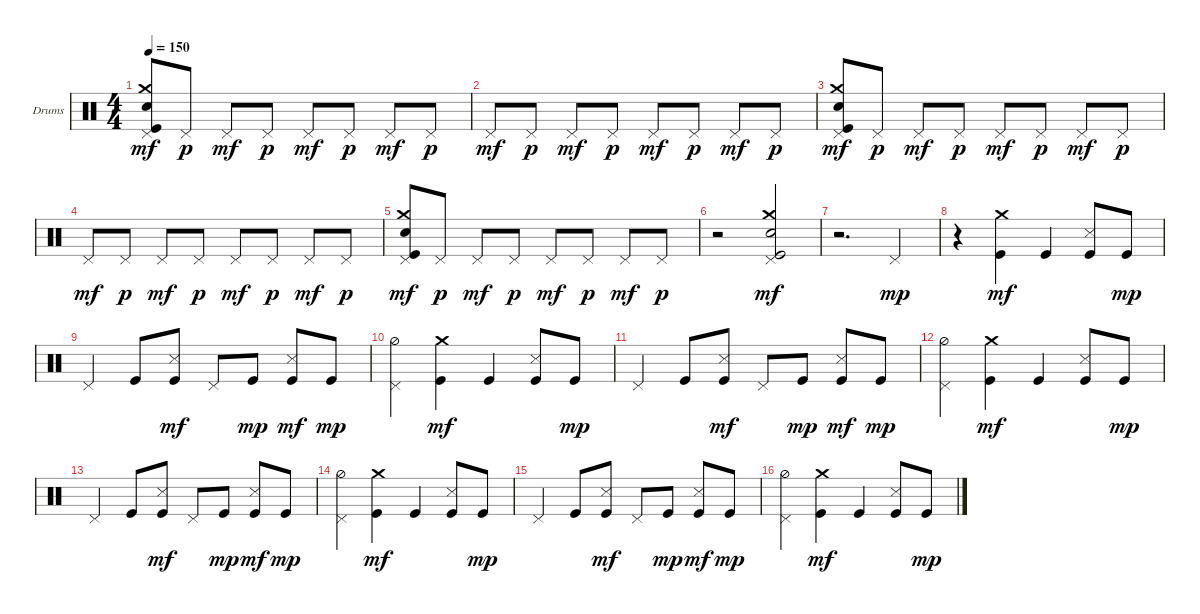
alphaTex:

\defaultSystemsLayout 4
\bracketExtendMode groupsimilarinstruments
\firstSystemTrackNameOrientation horizontal
\otherSystemsTrackNameOrientation horizontal
\track ("Е. Кулаков" "Drums") {instrument percussion}
\staff {score}
\articulation defaults
\ts (4 4)
\tempo 150
\clef neutral
\ks c
("Pedal Hi-Hat (hit)" "Crash medium (hit)" "Snare (hit) 2" "Kick (hit)").8{dy mf} "Pedal Hi-Hat (hit)".8{dy p} "Pedal Hi-Hat (hit)".8{dy mf} "Pedal Hi-Hat (hit)".8{dy p} "Pedal Hi-Hat (hit)".8{dy mf} "Pedal Hi-Hat (hit)".8{dy p} "Pedal Hi-Hat (hit)".8{dy mf} "Pedal Hi-Hat (hit)".8{dy p} |
"Pedal Hi-Hat (hit)".8{dy mf} "Pedal Hi-Hat (hit)".8{dy p} "Pedal Hi-Hat (hit)".8{dy mf} "Pedal Hi-Hat (hit)".8{dy p} "Pedal Hi-Hat (hit)".8{dy mf} "Pedal Hi-Hat (hit)".8{dy p} "Pedal Hi-Hat (hit)".8{dy mf} "Pedal Hi-Hat (hit)".8{dy p} |
("Pedal Hi-Hat (hit)" "Crash medium (hit)" "Snare (hit) 2" "Kick (hit)").8{dy mf} "Pedal Hi-Hat (hit)".8{dy p} "Pedal Hi-Hat (hit)".8{dy mf} "Pedal Hi-Hat (hit)".8{dy p} "Pedal Hi-Hat (hit)".8{dy mf} "Pedal Hi-Hat (hit)".8{dy p} "Pedal Hi-Hat (hit)".8{dy mf} "Pedal Hi-Hat (hit)".8{dy p} |
"Pedal Hi-Hat (hit)".8{dy mf} "Pedal Hi-Hat (hit)".8{dy p} "Pedal Hi-Hat (hit)".8{dy mf} "Pedal Hi-Hat (hit)".8{dy p} "Pedal Hi-Hat (hit)".8{dy mf} "Pedal Hi-Hat (hit)".8{dy p} "Pedal Hi-Hat (hit)".8{dy mf} "Pedal Hi-Hat (hit)".8{dy p} |
("Pedal Hi-Hat (hit)" "Crash medium (hit)" "Snare (hit) 2" "Kick (hit)").8{dy mf} "Pedal Hi-Hat (hit)".8{dy p} "Pedal Hi-Hat (hit)".8{dy mf} "Pedal Hi-Hat (hit)".8{dy p} "Pedal Hi-Hat (hit)".8{dy mf} "Pedal Hi-Hat (hit)".8{dy p} "Pedal Hi-Hat (hit)".8{dy mf} "Pedal Hi-Hat (hit)".8{dy p} |
r.2 ("Pedal Hi-Hat (hit)" "Crash medium (hit)" "Snare (hit) 2" "Kick (hit)").2{dy mf} |
r.2{d} "Pedal Hi-Hat (hit)".4{dy mp} |
r.4 ("Kick (hit)" "Crash medium (hit)").4{dy mf} "Kick (hit)".4 ("Kick (hit)" "Snare (side stick) 3").8 "Kick (hit)".8{dy mp} |
"Pedal Hi-Hat (hit)".4 "Kick (hit)".8 ("Kick (hit)" "Snare (side stick) 3").8{dy mf} "Pedal Hi-Hat (hit)".8 "Kick (hit)".8{dy mp} ("Kick (hit)" "Snare (side stick) 3").8{dy mf} "Kick (hit)".8{dy mp} |
("Pedal Hi-Hat (hit)" "Hi-Hat (half)").4 ("Kick (hit)" "Crash medium (hit)").4{dy mf} "Kick (hit)".4 ("Kick (hit)" "Snare (side stick) 3").8 "Kick (hit)".8{dy mp} |
"Pedal Hi-Hat (hit)".4 "Kick (hit)".8 ("Kick (hit)" "Snare (side stick) 3").8{dy mf} "Pedal Hi-Hat (hit)".8 "Kick (hit)".8{dy mp} ("Kick (hit)" "Snare (side stick) 3").8{dy mf} "Kick (hit)".8{dy mp} |
("Pedal Hi-Hat (hit)" "Hi-Hat (half)").4 ("Kick (hit)" "Crash medium (hit)").4{dy mf} "Kick (hit)".4 ("Kick (hit)" "Snare (side stick) 3").8 "Kick (hit)".8{dy mp} |
"Pedal Hi-Hat (hit)".4 "Kick (hit)".8 ("Kick (hit)" "Snare (side stick) 3").8{dy mf} "Pedal Hi-Hat (hit)".8 "Kick (hit)".8{dy mp} ("Kick (hit)" "Snare (side stick) 3").8{dy mf} "Kick (hit)".8{dy mp} |
("Pedal Hi-Hat (hit)" "Hi-Hat (half)").4 ("Kick (hit)" "Crash medium (hit)").4{dy mf} "Kick (hit)".4 ("Kick (hit)" "Snare (side stick) 3").8 "Kick (hit)".8{dy mp} |
"Pedal Hi-Hat (hit)".4 "Kick (hit)".8 ("Kick (hit)" "Snare (side stick) 3").8{dy mf} "Pedal Hi-Hat (hit)".8 "Kick (hit)".8{dy mp} ("Kick (hit)" "Snare (side stick) 3").8{dy mf} "Kick (hit)".8{dy mp} |
("Pedal Hi-Hat (hit)" "Hi-Hat (half)").4 ("Kick (hit)" "Crash medium (hit)").4{dy mf} "Kick (hit)".4 ("Kick (hit)" "Snare (side stick) 3").8 "Kick (hit)".8{dy mp}
